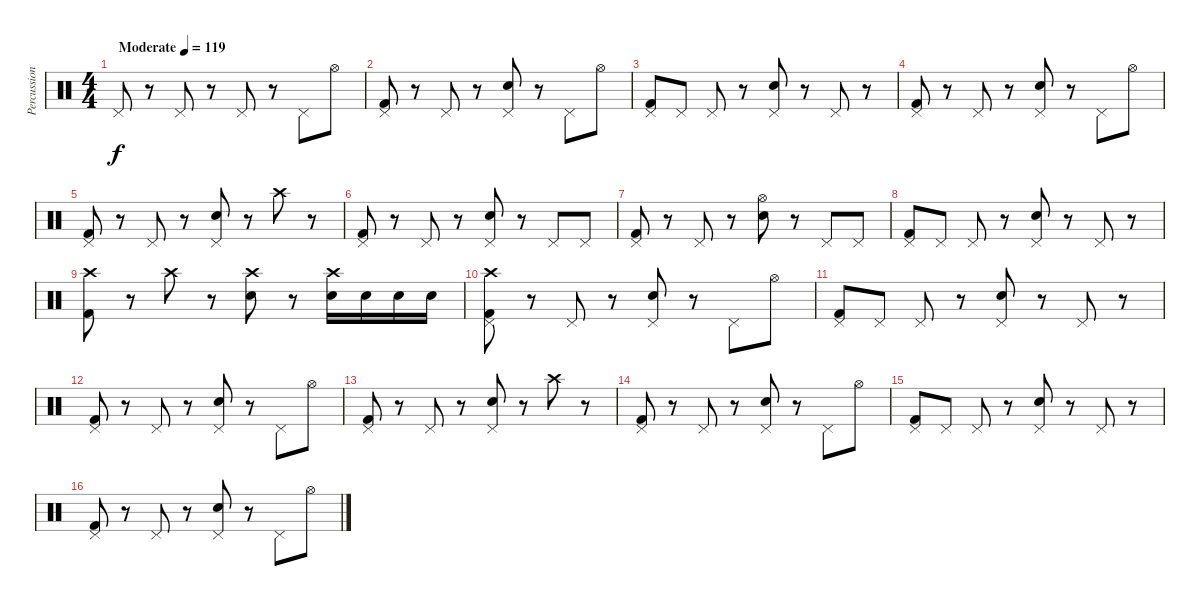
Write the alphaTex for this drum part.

\track ("Percussion" "Percussion") {instrument percussion}
\staff {score}
\articulation defaults
\ts (4 4)
\tempo (119 "Moderate")
\clef neutral
\ks c "Pedal Hi-Hat (hit)".8{dy f}
r.8 "Pedal Hi-Hat (hit)".8 r.8 "Pedal Hi-Hat (hit)".8 r.8 "Pedal Hi-Hat (hit)".8 "Hi-Hat (open)".8 |
("Pedal Hi-Hat (hit)" "Kick (hit) 2").8 r.8 "Pedal Hi-Hat (hit)".8 r.8 ("Pedal Hi-Hat (hit)" "Snare (hit) 2").8 r.8 "Pedal Hi-Hat (hit)".8 "Hi-Hat (open)".8 |
("Pedal Hi-Hat (hit)" "Kick (hit) 2").8 "Pedal Hi-Hat (hit)".8 "Pedal Hi-Hat (hit)".8 r.8 ("Pedal Hi-Hat (hit)" "Snare (hit) 2").8 r.8 "Pedal Hi-Hat (hit)".8 r.8 |
("Pedal Hi-Hat (hit)" "Kick (hit) 2").8 r.8 "Pedal Hi-Hat (hit)".8 r.8 ("Pedal Hi-Hat (hit)" "Snare (hit) 2").8 r.8 "Pedal Hi-Hat (hit)".8 "Hi-Hat (open)".8 |
("Pedal Hi-Hat (hit)" "Kick (hit) 2").8 r.8 "Pedal Hi-Hat (hit)".8 r.8 ("Pedal Hi-Hat (hit)" "Snare (hit) 2").8 r.8 "Crash high (hit)".8 r.8 |
("Pedal Hi-Hat (hit)" "Kick (hit) 2").8 r.8 "Pedal Hi-Hat (hit)".8 r.8 ("Pedal Hi-Hat (hit)" "Snare (hit) 2").8 r.8 "Pedal Hi-Hat (hit)".8 "Pedal Hi-Hat (hit)".8 |
("Pedal Hi-Hat (hit)" "Kick (hit) 2").8 r.8 "Pedal Hi-Hat (hit)".8 r.8 ("Hi-Hat (open)" "Snare (hit) 2").8 r.8 "Pedal Hi-Hat (hit)".8 "Pedal Hi-Hat (hit)".8 |
("Pedal Hi-Hat (hit)" "Kick (hit) 2").8 "Pedal Hi-Hat (hit)".8 "Pedal Hi-Hat (hit)".8 r.8 ("Pedal Hi-Hat (hit)" "Snare (hit) 2").8 r.8 "Pedal Hi-Hat (hit)".8 r.8 |
("Crash high (hit)" "Kick (hit) 2").8 r.8 "Crash high (hit)".8 r.8 ("Crash high (hit)" "Snare (hit) 2").8 r.8 ("Crash high (hit)" "Snare (hit) 2").16 "Snare (hit) 2".16 "Snare (hit) 2".16 "Snare (hit) 2".16 |
("Pedal Hi-Hat (hit)" "Kick (hit) 2" "Crash high (hit)").8 r.8 "Pedal Hi-Hat (hit)".8 r.8 ("Pedal Hi-Hat (hit)" "Snare (hit) 2").8 r.8 "Pedal Hi-Hat (hit)".8 "Hi-Hat (open)".8 |
("Pedal Hi-Hat (hit)" "Kick (hit) 2").8 "Pedal Hi-Hat (hit)".8 "Pedal Hi-Hat (hit)".8 r.8 ("Pedal Hi-Hat (hit)" "Snare (hit) 2").8 r.8 "Pedal Hi-Hat (hit)".8 r.8 |
("Pedal Hi-Hat (hit)" "Kick (hit) 2").8 r.8 "Pedal Hi-Hat (hit)".8 r.8 ("Pedal Hi-Hat (hit)" "Snare (hit) 2").8 r.8 "Pedal Hi-Hat (hit)".8 "Hi-Hat (open)".8 |
("Pedal Hi-Hat (hit)" "Kick (hit) 2").8 r.8 "Pedal Hi-Hat (hit)".8 r.8 ("Pedal Hi-Hat (hit)" "Snare (hit) 2").8 r.8 "Crash high (hit)".8 r.8 |
("Pedal Hi-Hat (hit)" "Kick (hit) 2").8 r.8 "Pedal Hi-Hat (hit)".8 r.8 ("Pedal Hi-Hat (hit)" "Snare (hit) 2").8 r.8 "Pedal Hi-Hat (hit)".8 "Hi-Hat (open)".8 |
("Pedal Hi-Hat (hit)" "Kick (hit) 2").8 "Pedal Hi-Hat (hit)".8 "Pedal Hi-Hat (hit)".8 r.8 ("Pedal Hi-Hat (hit)" "Snare (hit) 2").8 r.8 "Pedal Hi-Hat (hit)".8 r.8 |
("Pedal Hi-Hat (hit)" "Kick (hit) 2").8 r.8 "Pedal Hi-Hat (hit)".8 r.8 ("Pedal Hi-Hat (hit)" "Snare (hit) 2").8 r.8 "Pedal Hi-Hat (hit)".8 "Hi-Hat (open)".8
